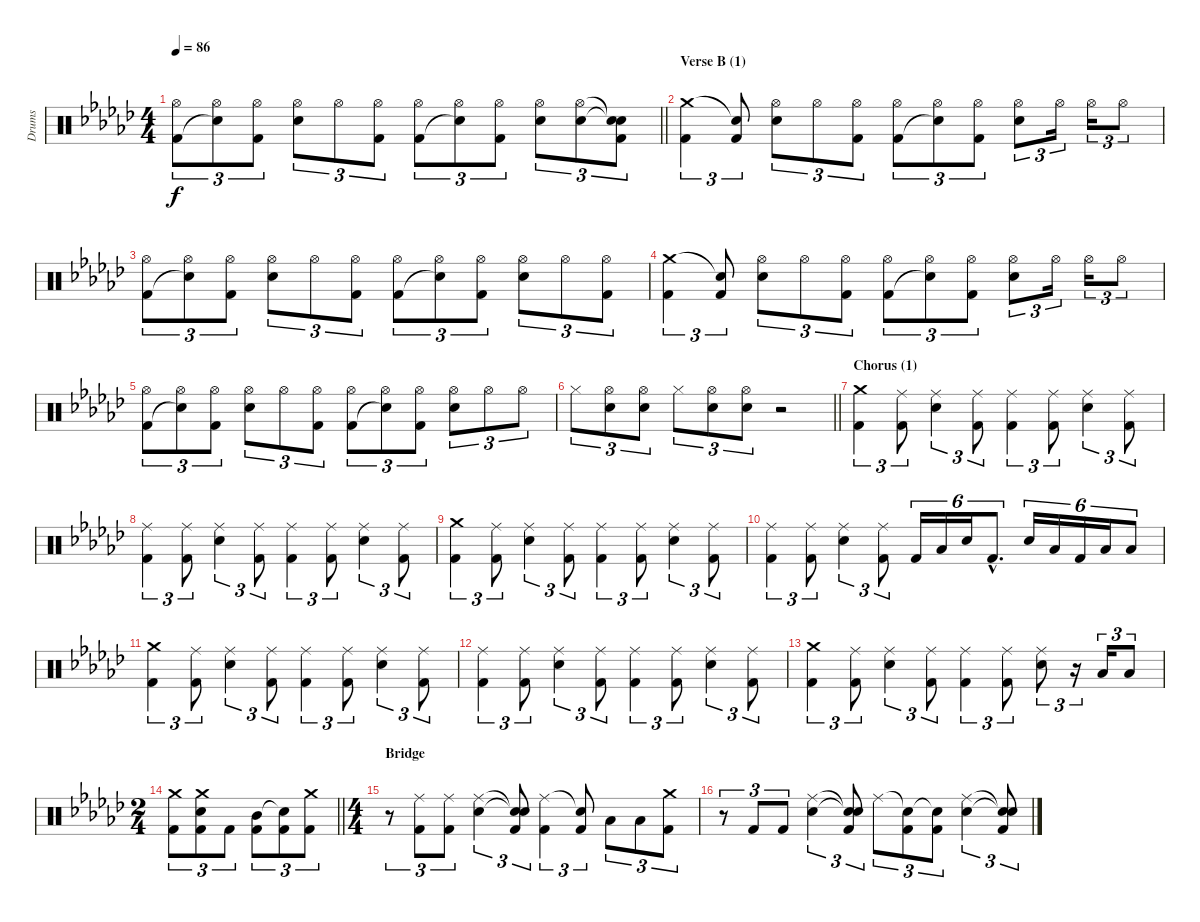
\track ("Drums" "Drums") {instrument percussion}
\staff {score}
\articulation defaults
\ts (4 4)
\tempo 86
\clef neutral
\barLineRight lightlight
\ks ebminor
("Hi-Hat (open)" "Kick (hit) 2").8{tu (3 2) dy f} ("Hi-Hat (open)" "Snare (hit)"{t}).8{tu (3 2)} ("Hi-Hat (open)" "Kick (hit) 2").8{tu (3 2)} ("Hi-Hat (open)" "Electric Snare (hit)").8{tu (3 2)} "Hi-Hat (open)".8{tu (3 2)} ("Hi-Hat (open)" "Kick (hit) 2").8{tu (3 2)} ("Hi-Hat (open)" "Kick (hit) 2").8{tu (3 2)} ("Hi-Hat (open)" "Snare (hit)"{t}).8{tu (3 2)} ("Hi-Hat (open)" "Kick (hit) 2").8{tu (3 2)} ("Hi-Hat (open)" "Electric Snare (hit)").8{tu (3 2)} ("Hi-Hat (open)" "Electric Snare (hit)").8{tu (3 2)} ("Snare (hit)"{t} "Snare (hit)"{t} "Kick (hit) 2").8{tu (3 2)} |
\section ("" "Verse B (1)")
("Crash medium (hit)" "Kick (hit) 2").4{tu (3 2)} ("Snare (hit)"{t} "Kick (hit) 2").8{tu (3 2)} ("Hi-Hat (open)" "Electric Snare (hit)").8{tu (3 2)} "Hi-Hat (open)".8{tu (3 2)} ("Hi-Hat (open)" "Kick (hit) 2").8{tu (3 2)} ("Hi-Hat (open)" "Kick (hit) 2").8{tu (3 2)} ("Hi-Hat (open)" "Snare (hit)"{t}).8{tu (3 2)} ("Hi-Hat (open)" "Kick (hit) 2").8{tu (3 2)} ("Hi-Hat (open)" "Electric Snare (hit)").8{tu (3 2)} "Hi-Hat (open)".16{tu (3 2)} "Hi-Hat (open)".16{tu (3 2)} "Hi-Hat (open)".8{tu (3 2)} |
("Hi-Hat (open)" "Kick (hit) 2").8{tu (3 2)} ("Hi-Hat (open)" "Snare (hit)"{t}).8{tu (3 2)} ("Hi-Hat (open)" "Kick (hit) 2").8{tu (3 2)} ("Hi-Hat (open)" "Electric Snare (hit)").8{tu (3 2)} "Hi-Hat (open)".8{tu (3 2)} ("Hi-Hat (open)" "Kick (hit) 2").8{tu (3 2)} ("Hi-Hat (open)" "Kick (hit) 2").8{tu (3 2)} ("Hi-Hat (open)" "Snare (hit)"{t}).8{tu (3 2)} ("Hi-Hat (open)" "Kick (hit) 2").8{tu (3 2)} ("Hi-Hat (open)" "Electric Snare (hit)").8{tu (3 2)} "Hi-Hat (open)".8{tu (3 2)} ("Hi-Hat (open)" "Kick (hit) 2").8{tu (3 2)} |
("Crash medium (hit)" "Kick (hit) 2").4{tu (3 2)} ("Snare (hit)"{t} "Kick (hit) 2").8{tu (3 2)} ("Hi-Hat (open)" "Electric Snare (hit)").8{tu (3 2)} "Hi-Hat (open)".8{tu (3 2)} ("Hi-Hat (open)" "Kick (hit) 2").8{tu (3 2)} ("Hi-Hat (open)" "Kick (hit) 2").8{tu (3 2)} ("Hi-Hat (open)" "Snare (hit)"{t}).8{tu (3 2)} ("Hi-Hat (open)" "Kick (hit) 2").8{tu (3 2)} ("Hi-Hat (open)" "Electric Snare (hit)").8{tu (3 2)} "Hi-Hat (open)".16{tu (3 2)} "Hi-Hat (open)".16{tu (3 2)} "Hi-Hat (open)".8{tu (3 2)} |
("Hi-Hat (open)" "Kick (hit) 2").8{tu (3 2)} ("Hi-Hat (open)" "Snare (hit)"{t}).8{tu (3 2)} ("Hi-Hat (open)" "Kick (hit) 2").8{tu (3 2)} ("Hi-Hat (open)" "Electric Snare (hit)").8{tu (3 2)} "Hi-Hat (open)".8{tu (3 2)} ("Hi-Hat (open)" "Kick (hit) 2").8{tu (3 2)} ("Hi-Hat (open)" "Kick (hit) 2").8{tu (3 2)} ("Hi-Hat (open)" "Snare (hit)"{t}).8{tu (3 2)} ("Hi-Hat (open)" "Kick (hit) 2").8{tu (3 2)} ("Hi-Hat (open)" "Electric Snare (hit)").8{tu (3 2)} "Hi-Hat (open)".8{tu (3 2)} "Hi-Hat (open)".8{tu (3 2)} |
\barLineRight lightlight "Hi-Hat (closed)".8{tu (3 2)}
("Hi-Hat (open)" "Electric Snare (hit)").8{tu (3 2)} ("Hi-Hat (open)" "Electric Snare (hit)").8{tu (3 2)} "Hi-Hat (closed)".8{tu (3 2)} ("Hi-Hat (open)" "Electric Snare (hit)").8{tu (3 2)} ("Hi-Hat (open)" "Electric Snare (hit)").8{tu (3 2)} r.2 |
\section ("" "Chorus (1)")
("Crash medium (hit)" "Kick (hit) 2").4{tu (3 2)} ("Ride (middle)" "Kick (hit) 2").8{tu (3 2)} ("Ride (middle)" "Electric Snare (hit)").4{tu (3 2)} ("Ride (middle)" "Kick (hit) 2").8{tu (3 2)} ("Ride (middle)" "Kick (hit) 2").4{tu (3 2)} ("Ride (middle)" "Kick (hit) 2").8{tu (3 2)} ("Ride (middle)" "Electric Snare (hit)").4{tu (3 2)} ("Ride (middle)" "Kick (hit) 2").8{tu (3 2)} |
("Ride (middle)" "Kick (hit) 2").4{tu (3 2)} ("Ride (middle)" "Kick (hit) 2").8{tu (3 2)} ("Ride (middle)" "Electric Snare (hit)").4{tu (3 2)} ("Ride (middle)" "Kick (hit) 2").8{tu (3 2)} ("Ride (middle)" "Kick (hit) 2").4{tu (3 2)} ("Ride (middle)" "Kick (hit) 2").8{tu (3 2)} ("Ride (middle)" "Electric Snare (hit)").4{tu (3 2)} ("Ride (middle)" "Kick (hit) 2").8{tu (3 2)} |
("Crash medium (hit)" "Kick (hit) 2").4{tu (3 2)} ("Ride (middle)" "Kick (hit) 2").8{tu (3 2)} ("Ride (middle)" "Electric Snare (hit)").4{tu (3 2)} ("Ride (middle)" "Kick (hit) 2").8{tu (3 2)} ("Ride (middle)" "Kick (hit) 2").4{tu (3 2)} ("Ride (middle)" "Kick (hit) 2").8{tu (3 2)} ("Ride (middle)" "Electric Snare (hit)").4{tu (3 2)} ("Ride (middle)" "Kick (hit) 2").8{tu (3 2)} |
("Ride (middle)" "Kick (hit) 2").4{tu (3 2)} ("Ride (middle)" "Kick (hit) 2").8{tu (3 2)} ("Ride (middle)" "Electric Snare (hit)").4{tu (3 2)} ("Ride (middle)" "Kick (hit) 2").8{tu (3 2)} "Kick (hit) 2".16{tu (6 4)} "Low Floor Tom (hit)".16{tu (6 4)} "Electric Snare (hit)".16{tu (6 4)} "Kick (hit) 2"{hac}.8{d tu (6 4)} "Electric Snare (hit)".16{tu (6 4)} "Low Tom (hit)".16{tu (6 4)} "Kick (hit) 2".16{tu (6 4)} "Low Floor Tom (hit)".16{tu (6 4)} "Low Floor Tom (hit)".8{tu (6 4)} |
("Crash medium (hit)" "Kick (hit) 2").4{tu (3 2)} ("Ride (middle)" "Kick (hit) 2").8{tu (3 2)} ("Ride (middle)" "Electric Snare (hit)").4{tu (3 2)} ("Ride (middle)" "Kick (hit) 2").8{tu (3 2)} ("Ride (middle)" "Kick (hit) 2").4{tu (3 2)} ("Ride (middle)" "Kick (hit) 2").8{tu (3 2)} ("Ride (middle)" "Electric Snare (hit)").4{tu (3 2)} ("Ride (middle)" "Kick (hit) 2").8{tu (3 2)} |
("Ride (middle)" "Kick (hit) 2").4{tu (3 2)} ("Ride (middle)" "Kick (hit) 2").8{tu (3 2)} ("Ride (middle)" "Electric Snare (hit)").4{tu (3 2)} ("Ride (middle)" "Kick (hit) 2").8{tu (3 2)} ("Ride (middle)" "Kick (hit) 2").4{tu (3 2)} ("Ride (middle)" "Kick (hit) 2").8{tu (3 2)} ("Ride (middle)" "Electric Snare (hit)").4{tu (3 2)} ("Ride (middle)" "Kick (hit) 2").8{tu (3 2)} |
("Crash medium (hit)" "Kick (hit) 2").4{tu (3 2)} ("Ride (middle)" "Kick (hit) 2").8{tu (3 2)} ("Ride (middle)" "Electric Snare (hit)").4{tu (3 2)} ("Ride (middle)" "Kick (hit) 2").8{tu (3 2)} ("Ride (middle)" "Kick (hit) 2").4{tu (3 2)} ("Ride (middle)" "Kick (hit) 2").8{tu (3 2)} ("Ride (middle)" "Electric Snare (hit)").8{tu (3 2)} r.16{tu (3 2)} "Low Floor Tom (hit)".16{tu (3 2)} "Low Floor Tom (hit)".8{tu (3 2)} |
\ts (2 4)
\barLineRight lightlight
("Crash medium (hit)" "Kick (hit) 2").8{tu (3 2)} ("Crash medium (hit)" "Electric Snare (hit)" "Kick (hit) 2").8{tu (3 2)} "Kick (hit) 2".8{tu (3 2)} ("Mid Tom (hit)" "Kick (hit) 2").8{tu (3 2)} ("Snare (hit)"{t} "Kick (hit) 2").8{tu (3 2)} ("Crash medium (hit)" "Kick (hit) 2").8{tu (3 2)} |
\ts (4 4)
\section ("" "Bridge")
r.8{tu (3 2)} ("Ride (middle)" "Kick (hit) 2").8{tu (3 2)} ("Ride (middle)" "Kick (hit) 2").8{tu (3 2)} ("Ride (middle)" "Electric Snare (hit)").4{tu (3 2)} ("Snare (hit)"{t} "Snare (hit)"{t} "Kick (hit) 2").8{tu (3 2)} ("Ride (middle)" "Kick (hit) 2").4{tu (3 2)} ("Snare (hit)"{t} "Kick (hit) 2").8{tu (3 2)} "Low Floor Tom (hit)".8{tu (3 2)} "Low Floor Tom (hit)".8{tu (3 2)} ("Crash medium (hit)" "Kick (hit) 2").8{tu (3 2)} |
r.8{tu (3 2)} "Kick (hit) 2".8{tu (3 2)} "Kick (hit) 2".8{tu (3 2)} ("Ride (middle)" "Electric Snare (hit)").4{tu (3 2)} ("Snare (hit)"{t} "Snare (hit)"{t} "Kick (hit) 2").8{tu (3 2)} "Ride (middle)".8{tu (3 2)} ("Snare (hit)"{t} "Kick (hit) 2").8{tu (3 2)} ("Snare (hit)"{t} "Kick (hit) 2").8{tu (3 2)} ("Ride (middle)" "Electric Snare (hit)").4{tu (3 2)} ("Snare (hit)"{t} "Snare (hit)"{t} "Kick (hit) 2").8{tu (3 2)}
